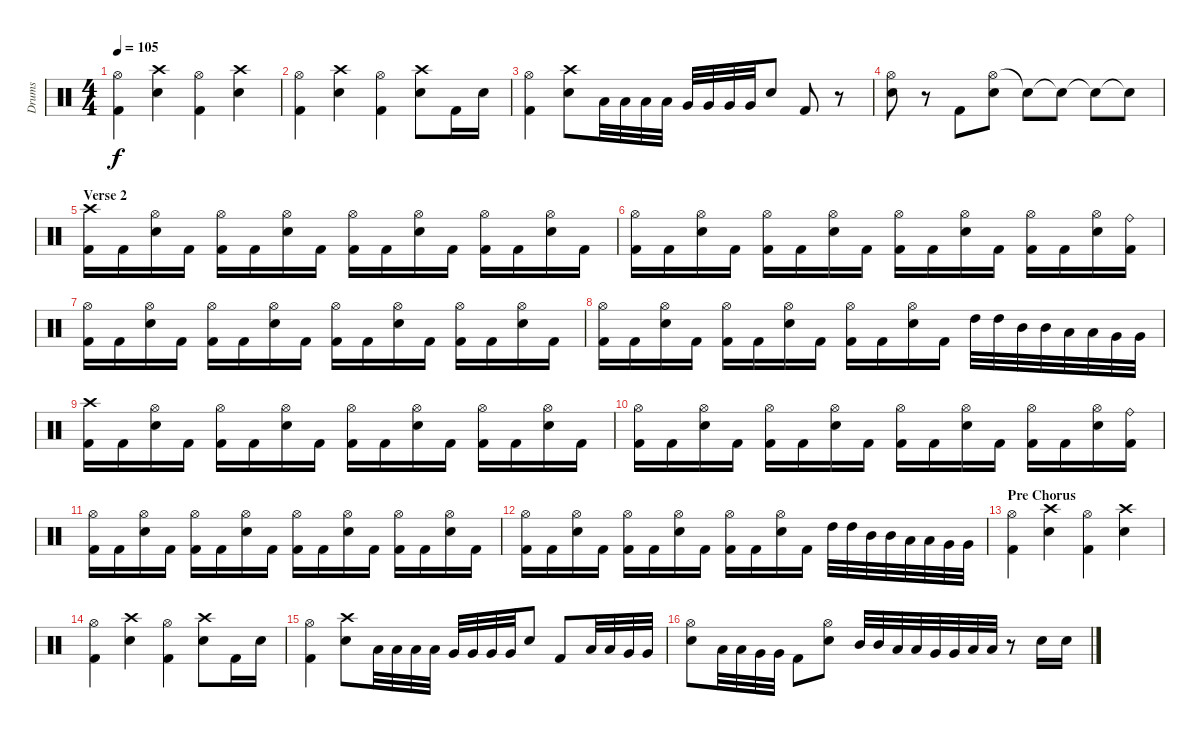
\track ("Drums" "Drums") {instrument percussion}
\staff {score}
\articulation defaults
\ts (4 4)
\tempo 105
\clef neutral
\ks c
("Hi-Hat (open)" "Kick (hit) 2").4{dy f} ("Crash high (hit)" "Electric Snare (hit)").4 ("Hi-Hat (open)" "Kick (hit) 2").4 ("Crash high (hit)" "Electric Snare (hit)").4 |
("Hi-Hat (open)" "Kick (hit) 2").4 ("Crash high (hit)" "Electric Snare (hit)").4 ("Hi-Hat (open)" "Kick (hit) 2").4 ("Crash high (hit)" "Electric Snare (hit)").8 "Kick (hit) 2".16 "Electric Snare (hit)".16 |
("Hi-Hat (open)" "Kick (hit) 2").4 ("Crash high (hit)" "Electric Snare (hit)").8 "Low Tom (hit)".32 "Low Tom (hit)".32 "Low Tom (hit)".32 "Low Tom (hit)".32 "Very Low Tom (hit)".32 "Very Low Tom (hit)".32 "Very Low Tom (hit)".32 "Very Low Tom (hit)".32 "Electric Snare (hit)".8 "Kick (hit) 2".8 r.8 |
("Hi-Hat (open)" "Electric Snare (hit)").8 r.8 "Kick (hit) 2".8 ("Hi-Hat (open)" "Electric Snare (hit)").8 "Snare (hit)"{t}.8 "Snare (hit)"{t}.8 "Snare (hit)"{t}.8 "Snare (hit)"{t}.8 |
\section ("" "Verse 2")
("Crash high (hit)" "Kick (hit) 2").16 "Kick (hit) 2".16 ("Hi-Hat (open)" "Electric Snare (hit)").16 "Kick (hit) 2".16 ("Hi-Hat (open)" "Kick (hit) 2").16 "Kick (hit) 2".16 ("Hi-Hat (open)" "Electric Snare (hit)").16 "Kick (hit) 2".16 ("Hi-Hat (open)" "Kick (hit) 2").16 "Kick (hit) 2".16 ("Hi-Hat (open)" "Electric Snare (hit)").16 "Kick (hit) 2".16 ("Hi-Hat (open)" "Kick (hit) 2").16 "Kick (hit) 2".16 ("Hi-Hat (open)" "Electric Snare (hit)").16 "Kick (hit) 2".16 |
("Hi-Hat (open)" "Kick (hit) 2").16 "Kick (hit) 2".16 ("Hi-Hat (open)" "Electric Snare (hit)").16 "Kick (hit) 2".16 ("Hi-Hat (open)" "Kick (hit) 2").16 "Kick (hit) 2".16 ("Hi-Hat (open)" "Electric Snare (hit)").16 "Kick (hit) 2".16 ("Hi-Hat (open)" "Kick (hit) 2").16 "Kick (hit) 2".16 ("Hi-Hat (open)" "Electric Snare (hit)").16 "Kick (hit) 2".16 ("Hi-Hat (open)" "Kick (hit) 2").16 "Kick (hit) 2".16 ("Hi-Hat (open)" "Electric Snare (hit)").16 ("Ride (bell)" "Kick (hit) 2").16 |
("Hi-Hat (open)" "Kick (hit) 2").16 "Kick (hit) 2".16 ("Hi-Hat (open)" "Electric Snare (hit)").16 "Kick (hit) 2".16 ("Hi-Hat (open)" "Kick (hit) 2").16 "Kick (hit) 2".16 ("Hi-Hat (open)" "Electric Snare (hit)").16 "Kick (hit) 2".16 ("Hi-Hat (open)" "Kick (hit) 2").16 "Kick (hit) 2".16 ("Hi-Hat (open)" "Electric Snare (hit)").16 "Kick (hit) 2".16 ("Hi-Hat (open)" "Kick (hit) 2").16 "Kick (hit) 2".16 ("Hi-Hat (open)" "Electric Snare (hit)").16 "Kick (hit) 2".16 |
("Hi-Hat (open)" "Kick (hit) 2").16 "Kick (hit) 2".16 ("Hi-Hat (open)" "Electric Snare (hit)").16 "Kick (hit) 2".16 ("Hi-Hat (open)" "Kick (hit) 2").16 "Kick (hit) 2".16 ("Hi-Hat (open)" "Electric Snare (hit)").16 "Kick (hit) 2".16 ("Hi-Hat (open)" "Kick (hit) 2").16 "Kick (hit) 2".16 ("Hi-Hat (open)" "Electric Snare (hit)").16 "Kick (hit) 2".16 "High Tom (hit)".32 "High Tom (hit)".32 "Mid Tom (hit)".32 "Mid Tom (hit)".32 "Low Tom (hit)".32 "Low Tom (hit)".32 "Very Low Tom (hit)".32 "Very Low Tom (hit)".32 |
("Crash high (hit)" "Kick (hit) 2").16 "Kick (hit) 2".16 ("Hi-Hat (open)" "Electric Snare (hit)").16 "Kick (hit) 2".16 ("Hi-Hat (open)" "Kick (hit) 2").16 "Kick (hit) 2".16 ("Hi-Hat (open)" "Electric Snare (hit)").16 "Kick (hit) 2".16 ("Hi-Hat (open)" "Kick (hit) 2").16 "Kick (hit) 2".16 ("Hi-Hat (open)" "Electric Snare (hit)").16 "Kick (hit) 2".16 ("Hi-Hat (open)" "Kick (hit) 2").16 "Kick (hit) 2".16 ("Hi-Hat (open)" "Electric Snare (hit)").16 "Kick (hit) 2".16 |
("Hi-Hat (open)" "Kick (hit) 2").16 "Kick (hit) 2".16 ("Hi-Hat (open)" "Electric Snare (hit)").16 "Kick (hit) 2".16 ("Hi-Hat (open)" "Kick (hit) 2").16 "Kick (hit) 2".16 ("Hi-Hat (open)" "Electric Snare (hit)").16 "Kick (hit) 2".16 ("Hi-Hat (open)" "Kick (hit) 2").16 "Kick (hit) 2".16 ("Hi-Hat (open)" "Electric Snare (hit)").16 "Kick (hit) 2".16 ("Hi-Hat (open)" "Kick (hit) 2").16 "Kick (hit) 2".16 ("Hi-Hat (open)" "Electric Snare (hit)").16 ("Ride (bell)" "Kick (hit) 2").16 |
("Hi-Hat (open)" "Kick (hit) 2").16 "Kick (hit) 2".16 ("Hi-Hat (open)" "Electric Snare (hit)").16 "Kick (hit) 2".16 ("Hi-Hat (open)" "Kick (hit) 2").16 "Kick (hit) 2".16 ("Hi-Hat (open)" "Electric Snare (hit)").16 "Kick (hit) 2".16 ("Hi-Hat (open)" "Kick (hit) 2").16 "Kick (hit) 2".16 ("Hi-Hat (open)" "Electric Snare (hit)").16 "Kick (hit) 2".16 ("Hi-Hat (open)" "Kick (hit) 2").16 "Kick (hit) 2".16 ("Hi-Hat (open)" "Electric Snare (hit)").16 "Kick (hit) 2".16 |
("Hi-Hat (open)" "Kick (hit) 2").16 "Kick (hit) 2".16 ("Hi-Hat (open)" "Electric Snare (hit)").16 "Kick (hit) 2".16 ("Hi-Hat (open)" "Kick (hit) 2").16 "Kick (hit) 2".16 ("Hi-Hat (open)" "Electric Snare (hit)").16 "Kick (hit) 2".16 ("Hi-Hat (open)" "Kick (hit) 2").16 "Kick (hit) 2".16 ("Hi-Hat (open)" "Electric Snare (hit)").16 "Kick (hit) 2".16 "High Tom (hit)".32 "High Tom (hit)".32 "Mid Tom (hit)".32 "Mid Tom (hit)".32 "Low Tom (hit)".32 "Low Tom (hit)".32 "Very Low Tom (hit)".32 "Very Low Tom (hit)".32 |
\section ("" "Pre Chorus")
("Hi-Hat (open)" "Kick (hit) 2").4 ("Crash high (hit)" "Electric Snare (hit)").4 ("Hi-Hat (open)" "Kick (hit) 2").4 ("Crash high (hit)" "Electric Snare (hit)").4 |
("Hi-Hat (open)" "Kick (hit) 2").4 ("Crash high (hit)" "Electric Snare (hit)").4 ("Hi-Hat (open)" "Kick (hit) 2").4 ("Crash high (hit)" "Electric Snare (hit)").8 "Kick (hit) 2".16 "Electric Snare (hit)".16 |
("Hi-Hat (open)" "Kick (hit) 2").4 ("Crash high (hit)" "Electric Snare (hit)").8 "Low Tom (hit)".32 "Low Tom (hit)".32 "Low Tom (hit)".32 "Low Tom (hit)".32 "Very Low Tom (hit)".32 "Very Low Tom (hit)".32 "Very Low Tom (hit)".32 "Very Low Tom (hit)".32 "Electric Snare (hit)".8 "Kick (hit) 2".8 "Low Tom (hit)".32 "Low Tom (hit)".32 "Very Low Tom (hit)".32 "Very Low Tom (hit)".32 |
("Hi-Hat (open)" "Electric Snare (hit)").8 "Low Tom (hit)".32 "Low Tom (hit)".32 "Very Low Tom (hit)".32 "Very Low Tom (hit)".32 "Kick (hit) 2".8 ("Hi-Hat (open)" "Electric Snare (hit)").8 "Mid Tom (hit)".32 "Mid Tom (hit)".32 "Low Tom (hit)".32 "Low Tom (hit)".32 "Very Low Tom (hit)".32 "Very Low Tom (hit)".32 "Low Floor Tom (hit)".32 "Low Floor Tom (hit)".32 r.8 "Electric Snare (hit)".16 "Electric Snare (hit)".16
